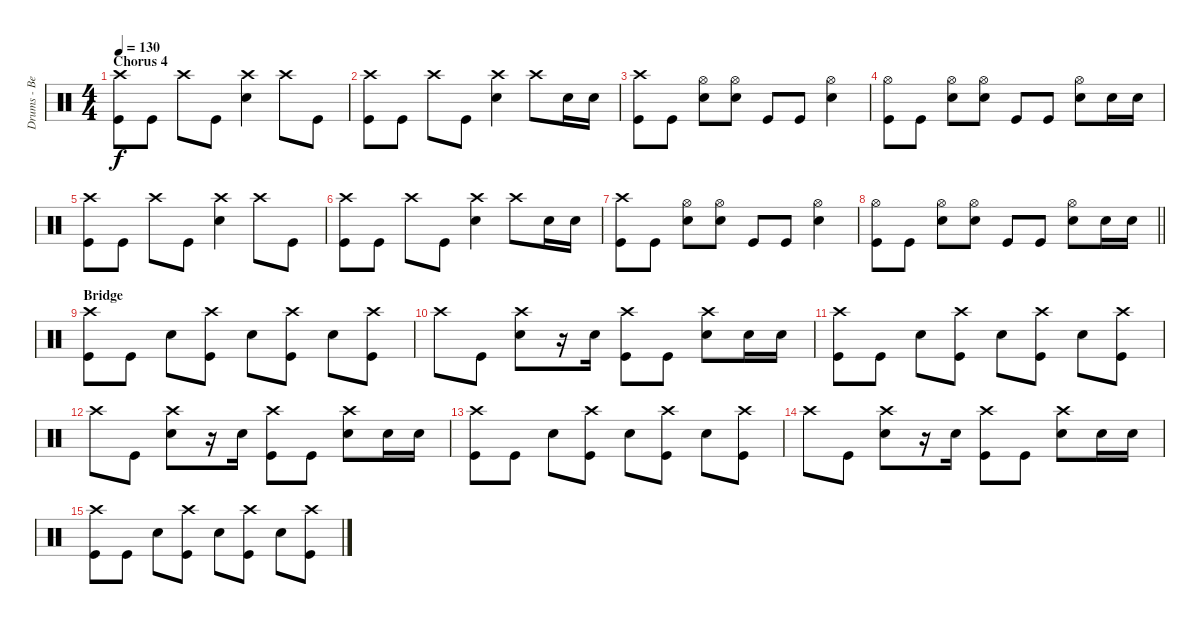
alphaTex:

\track ("Drums - Ben Johnston" "Drums - Be") {instrument percussion}
\staff {score}
\articulation defaults
\ts (4 4)
\section ("" "Chorus 4")
\tempo 130
\clef neutral
\ks c
("Crash high (hit)" "Kick (hit)").8{dy f volume 13} "Kick (hit)".8 "Crash high (hit)".8 "Kick (hit)".8 ("Crash high (hit)" "Snare (hit) 2").4 "Crash high (hit)".8 "Kick (hit)".8 |
("Crash high (hit)" "Kick (hit)").8 "Kick (hit)".8 "Crash high (hit)".8 "Kick (hit)".8 ("Crash high (hit)" "Snare (hit) 2").4 "Crash high (hit)".8 "Snare (hit) 2".16 "Snare (hit) 2".16 |
("Crash high (hit)" "Kick (hit)").8 "Kick (hit)".8 ("Hi-Hat (open)" "Snare (hit) 2").8 ("Hi-Hat (open)" "Snare (hit) 2").8 "Kick (hit)".8 "Kick (hit)".8 ("Hi-Hat (open)" "Snare (hit) 2").4 |
("Hi-Hat (open)" "Kick (hit)").8 "Kick (hit)".8 ("Hi-Hat (open)" "Snare (hit) 2").8 ("Hi-Hat (open)" "Snare (hit) 2").8 "Kick (hit)".8 "Kick (hit)".8 ("Hi-Hat (open)" "Snare (hit) 2").8 "Snare (hit) 2".16 "Snare (hit) 2".16 |
("Crash high (hit)" "Kick (hit)").8 "Kick (hit)".8 "Crash high (hit)".8 "Kick (hit)".8 ("Crash high (hit)" "Snare (hit) 2").4 "Crash high (hit)".8 "Kick (hit)".8 |
("Crash high (hit)" "Kick (hit)").8 "Kick (hit)".8 "Crash high (hit)".8 "Kick (hit)".8 ("Crash high (hit)" "Snare (hit) 2").4 "Crash high (hit)".8 "Snare (hit) 2".16 "Snare (hit) 2".16 |
("Crash high (hit)" "Kick (hit)").8 "Kick (hit)".8 ("Hi-Hat (open)" "Snare (hit) 2").8 ("Hi-Hat (open)" "Snare (hit) 2").8 "Kick (hit)".8 "Kick (hit)".8 ("Hi-Hat (open)" "Snare (hit) 2").4 |
\barLineRight lightlight
("Hi-Hat (open)" "Kick (hit)").8 "Kick (hit)".8 ("Hi-Hat (open)" "Snare (hit) 2").8 ("Hi-Hat (open)" "Snare (hit) 2").8 "Kick (hit)".8 "Kick (hit)".8 ("Hi-Hat (open)" "Snare (hit) 2").8 "Snare (hit) 2".16 "Snare (hit) 2".16 |
\section ("" "Bridge")
("Crash high (hit)" "Kick (hit)").8 "Kick (hit)".8 "Snare (hit) 2".8 ("Crash high (hit)" "Kick (hit)").8 "Snare (hit) 2".8 ("Crash high (hit)" "Kick (hit)").8 "Snare (hit) 2".8 ("Crash high (hit)" "Kick (hit)").8 |
"Crash high (hit)".8 "Kick (hit)".8 ("Crash high (hit)" "Snare (hit) 2").8 r.16 "Snare (hit) 2".16 ("Crash high (hit)" "Kick (hit)").8 "Kick (hit)".8 ("Crash high (hit)" "Snare (hit) 2").8 "Snare (hit) 2".16 "Snare (hit) 2".16 |
("Crash high (hit)" "Kick (hit)").8 "Kick (hit)".8 "Snare (hit) 2".8 ("Crash high (hit)" "Kick (hit)").8 "Snare (hit) 2".8 ("Crash high (hit)" "Kick (hit)").8 "Snare (hit) 2".8 ("Crash high (hit)" "Kick (hit)").8 |
"Crash high (hit)".8 "Kick (hit)".8 ("Crash high (hit)" "Snare (hit) 2").8 r.16 "Snare (hit) 2".16 ("Crash high (hit)" "Kick (hit)").8 "Kick (hit)".8 ("Crash high (hit)" "Snare (hit) 2").8 "Snare (hit) 2".16 "Snare (hit) 2".16 |
("Crash high (hit)" "Kick (hit)").8 "Kick (hit)".8 "Snare (hit) 2".8 ("Crash high (hit)" "Kick (hit)").8 "Snare (hit) 2".8 ("Crash high (hit)" "Kick (hit)").8 "Snare (hit) 2".8 ("Crash high (hit)" "Kick (hit)").8 |
"Crash high (hit)".8 "Kick (hit)".8 ("Crash high (hit)" "Snare (hit) 2").8 r.16 "Snare (hit) 2".16 ("Crash high (hit)" "Kick (hit)").8 "Kick (hit)".8 ("Crash high (hit)" "Snare (hit) 2").8 "Snare (hit) 2".16 "Snare (hit) 2".16 |
("Crash high (hit)" "Kick (hit)").8 "Kick (hit)".8 "Snare (hit) 2".8 ("Crash high (hit)" "Kick (hit)").8 "Snare (hit) 2".8 ("Crash high (hit)" "Kick (hit)").8 "Snare (hit) 2".8 ("Crash high (hit)" "Kick (hit)").8
